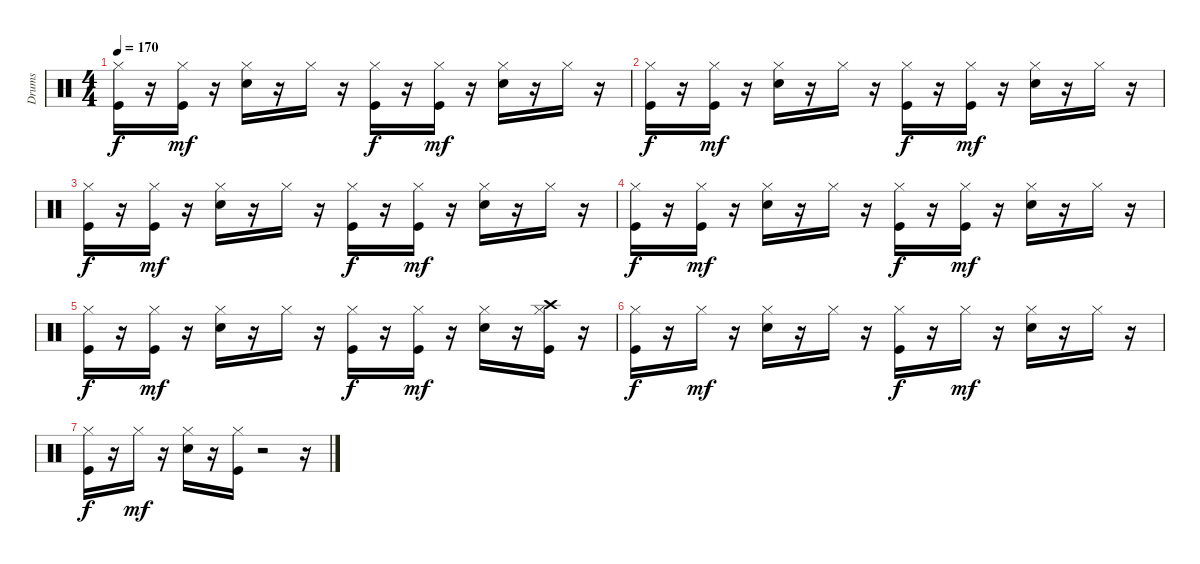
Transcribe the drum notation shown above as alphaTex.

\track ("Drums" "Drums") {instrument percussion}
\staff {score}
\articulation defaults
\ts (4 4)
\tempo 170
\clef neutral
\ks c
("Hi-Hat (closed)" "Kick (hit)").16{dy f} r.16 ("Hi-Hat (closed)" "Kick (hit)").16{dy mf} r.16 ("Hi-Hat (closed)" "Electric Snare (hit)").16 r.16 "Hi-Hat (closed)".16 r.16 ("Hi-Hat (closed)" "Kick (hit)").16{dy f} r.16 ("Hi-Hat (closed)" "Kick (hit)").16{dy mf} r.16 ("Hi-Hat (closed)" "Electric Snare (hit)").16 r.16 "Hi-Hat (closed)".16 r.16 |
("Hi-Hat (closed)" "Kick (hit)").16{dy f} r.16 ("Hi-Hat (closed)" "Kick (hit)").16{dy mf} r.16 ("Hi-Hat (closed)" "Electric Snare (hit)").16 r.16 "Hi-Hat (closed)".16 r.16 ("Hi-Hat (closed)" "Kick (hit)").16{dy f} r.16 ("Hi-Hat (closed)" "Kick (hit)").16{dy mf} r.16 ("Hi-Hat (closed)" "Electric Snare (hit)").16 r.16 "Hi-Hat (closed)".16 r.16 |
("Hi-Hat (closed)" "Kick (hit)").16{dy f} r.16 ("Hi-Hat (closed)" "Kick (hit)").16{dy mf} r.16 ("Hi-Hat (closed)" "Electric Snare (hit)").16 r.16 "Hi-Hat (closed)".16 r.16 ("Hi-Hat (closed)" "Kick (hit)").16{dy f} r.16 ("Hi-Hat (closed)" "Kick (hit)").16{dy mf} r.16 ("Hi-Hat (closed)" "Electric Snare (hit)").16 r.16 "Hi-Hat (closed)".16 r.16 |
("Hi-Hat (closed)" "Kick (hit)").16{dy f} r.16 ("Hi-Hat (closed)" "Kick (hit)").16{dy mf} r.16 ("Hi-Hat (closed)" "Electric Snare (hit)").16 r.16 "Hi-Hat (closed)".16 r.16 ("Hi-Hat (closed)" "Kick (hit)").16{dy f} r.16 ("Hi-Hat (closed)" "Kick (hit)").16{dy mf} r.16 ("Hi-Hat (closed)" "Electric Snare (hit)").16 r.16 "Hi-Hat (closed)".16 r.16 |
("Hi-Hat (closed)" "Kick (hit)").16{dy f} r.16 ("Hi-Hat (closed)" "Kick (hit)").16{dy mf} r.16 ("Hi-Hat (closed)" "Electric Snare (hit)").16 r.16 "Hi-Hat (closed)".16 r.16 ("Hi-Hat (closed)" "Kick (hit)").16{dy f} r.16 ("Hi-Hat (closed)" "Kick (hit)").16{dy mf} r.16 ("Hi-Hat (closed)" "Electric Snare (hit)").16 r.16 ("Hi-Hat (closed)" "Crash high (hit)" "Kick (hit)").16 r.16 |
("Hi-Hat (closed)" "Kick (hit)").16{dy f} r.16 "Hi-Hat (closed)".16{dy mf} r.16 ("Hi-Hat (closed)" "Electric Snare (hit)").16 r.16 "Hi-Hat (closed)".16 r.16 ("Hi-Hat (closed)" "Kick (hit)").16{dy f} r.16 "Hi-Hat (closed)".16{dy mf} r.16 ("Hi-Hat (closed)" "Electric Snare (hit)").16 r.16 "Hi-Hat (closed)".16 r.16 |
("Hi-Hat (closed)" "Kick (hit)").16{dy f} r.16 "Hi-Hat (closed)".16{dy mf} r.16 ("Hi-Hat (closed)" "Electric Snare (hit)").16 r.16 ("Hi-Hat (closed)" "Kick (hit)").16 r.2 r.16
